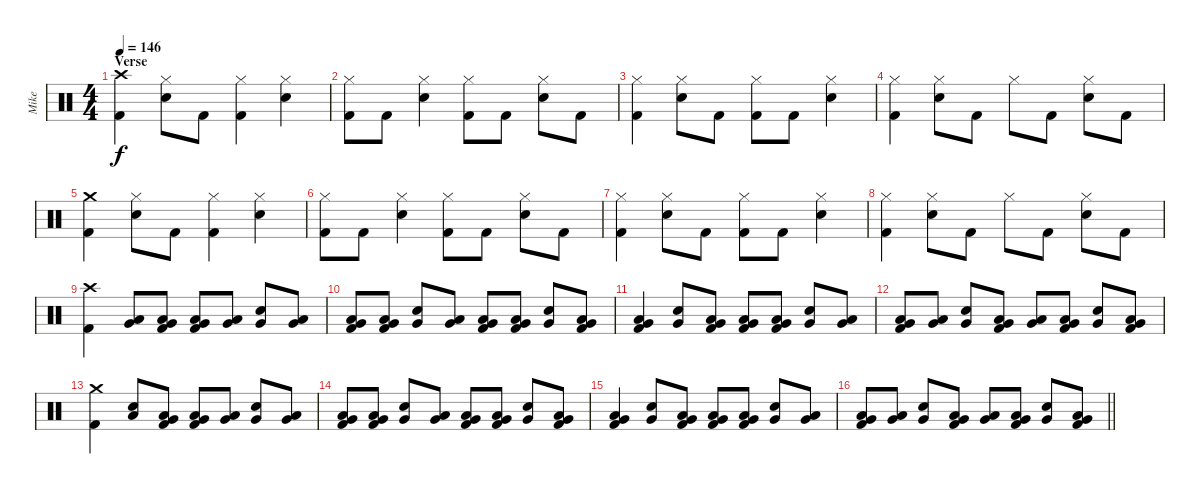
\track ("Mike" "Mike") {instrument percussion}
\staff {score}
\articulation defaults
\ts (4 4)
\section ("" "Verse")
\tempo 146
\clef neutral
\ks c
("Crash high (hit)" "Kick (hit) 2").4{dy f} ("Snare (hit) 2" "Hi-Hat (closed)").8 "Kick (hit) 2".8 ("Hi-Hat (closed)" "Kick (hit) 2").4 ("Snare (hit) 2" "Hi-Hat (closed)").4 |
("Hi-Hat (closed)" "Kick (hit) 2").8 "Kick (hit) 2".8 ("Snare (hit) 2" "Hi-Hat (closed)").4 ("Hi-Hat (closed)" "Kick (hit) 2").8 "Kick (hit) 2".8 ("Snare (hit) 2" "Hi-Hat (closed)").8 "Kick (hit) 2".8 |
("Hi-Hat (closed)" "Kick (hit) 2").4 ("Snare (hit) 2" "Hi-Hat (closed)").8 "Kick (hit) 2".8 ("Hi-Hat (closed)" "Kick (hit) 2").8 "Kick (hit) 2".8 ("Snare (hit) 2" "Hi-Hat (closed)").4 |
("Hi-Hat (closed)" "Kick (hit) 2").4 ("Snare (hit) 2" "Hi-Hat (closed)").8 "Kick (hit) 2".8 "Hi-Hat (closed)".8 "Kick (hit) 2".8 ("Snare (hit) 2" "Hi-Hat (closed)").8 "Kick (hit) 2".8 |
("Crash medium (hit)" "Kick (hit) 2").4 ("Snare (hit) 2" "Hi-Hat (closed)").8 "Kick (hit) 2".8 ("Hi-Hat (closed)" "Kick (hit) 2").4 ("Snare (hit) 2" "Hi-Hat (closed)").4 |
("Hi-Hat (closed)" "Kick (hit) 2").8 "Kick (hit) 2".8 ("Snare (hit) 2" "Hi-Hat (closed)").4 ("Hi-Hat (closed)" "Kick (hit) 2").8 "Kick (hit) 2".8 ("Snare (hit) 2" "Hi-Hat (closed)").8 "Kick (hit) 2".8 |
("Hi-Hat (closed)" "Kick (hit) 2").4 ("Snare (hit) 2" "Hi-Hat (closed)").8 "Kick (hit) 2".8 ("Hi-Hat (closed)" "Kick (hit) 2").8 "Kick (hit) 2".8 ("Snare (hit) 2" "Hi-Hat (closed)").4 |
("Hi-Hat (closed)" "Kick (hit) 2").4 ("Snare (hit) 2" "Hi-Hat (closed)").8 "Kick (hit) 2".8 "Hi-Hat (closed)".8 "Kick (hit) 2".8 ("Snare (hit) 2" "Hi-Hat (closed)").8 "Kick (hit) 2".8 |
("Crash high (hit)" "Kick (hit) 2").4 ("Low Tom (hit)" "Very Low Tom (hit)").8 ("Very Low Tom (hit)" "Low Floor Tom (hit)" "Kick (hit) 2").8 ("Low Tom (hit)" "Very Low Tom (hit)" "Kick (hit) 2").8 ("Very Low Tom (hit)" "Low Floor Tom (hit)").8 ("Snare (hit) 2" "Very Low Tom (hit)").8 ("Very Low Tom (hit)" "Low Floor Tom (hit)").8 |
("Low Tom (hit)" "Very Low Tom (hit)" "Kick (hit) 2").8 ("Very Low Tom (hit)" "Low Floor Tom (hit)" "Kick (hit) 2").8 ("Snare (hit) 2" "Very Low Tom (hit)").8 ("Very Low Tom (hit)" "Low Floor Tom (hit)").8 ("Low Tom (hit)" "Very Low Tom (hit)" "Kick (hit) 2").8 ("Very Low Tom (hit)" "Low Floor Tom (hit)" "Kick (hit) 2").8 ("Snare (hit) 2" "Very Low Tom (hit)").8 ("Low Tom (hit)" "Very Low Tom (hit)" "Kick (hit) 2").8 |
("Very Low Tom (hit)" "Low Floor Tom (hit)" "Kick (hit) 2").4 ("Snare (hit) 2" "Very Low Tom (hit)").8 ("Very Low Tom (hit)" "Low Floor Tom (hit)" "Kick (hit) 2").8 ("Low Tom (hit)" "Very Low Tom (hit)" "Kick (hit) 2").8 ("Very Low Tom (hit)" "Low Floor Tom (hit)" "Kick (hit) 2").8 ("Snare (hit) 2" "Very Low Tom (hit)").8 ("Very Low Tom (hit)" "Low Floor Tom (hit)").8 |
("Low Tom (hit)" "Very Low Tom (hit)" "Kick (hit) 2").8 ("Very Low Tom (hit)" "Low Floor Tom (hit)").8 ("Snare (hit) 2" "Very Low Tom (hit)").8 ("Very Low Tom (hit)" "Low Floor Tom (hit)" "Kick (hit) 2").8 ("Low Tom (hit)" "Very Low Tom (hit)").8 ("Very Low Tom (hit)" "Low Floor Tom (hit)" "Kick (hit) 2").8 ("Snare (hit) 2" "Very Low Tom (hit)").8 ("Very Low Tom (hit)" "Low Floor Tom (hit)" "Kick (hit) 2").8 |
("Crash medium (hit)" "Kick (hit) 2").4 ("Snare (hit) 2" "Low Tom (hit)").8 ("Very Low Tom (hit)" "Low Floor Tom (hit)" "Kick (hit) 2").8 ("Low Tom (hit)" "Very Low Tom (hit)" "Kick (hit) 2").8 ("Very Low Tom (hit)" "Low Floor Tom (hit)").8 ("Snare (hit) 2" "Very Low Tom (hit)").8 ("Very Low Tom (hit)" "Low Floor Tom (hit)").8 |
("Low Tom (hit)" "Very Low Tom (hit)" "Kick (hit) 2").8 ("Very Low Tom (hit)" "Low Floor Tom (hit)" "Kick (hit) 2").8 ("Snare (hit) 2" "Very Low Tom (hit)").8 ("Very Low Tom (hit)" "Low Floor Tom (hit)").8 ("Low Tom (hit)" "Very Low Tom (hit)" "Kick (hit) 2").8 ("Very Low Tom (hit)" "Low Floor Tom (hit)" "Kick (hit) 2").8 ("Snare (hit) 2" "Very Low Tom (hit)").8 ("Low Tom (hit)" "Very Low Tom (hit)" "Kick (hit) 2").8 |
("Very Low Tom (hit)" "Low Floor Tom (hit)" "Kick (hit) 2").4 ("Snare (hit) 2" "Very Low Tom (hit)").8 ("Very Low Tom (hit)" "Low Floor Tom (hit)" "Kick (hit) 2").8 ("Low Tom (hit)" "Very Low Tom (hit)" "Kick (hit) 2").8 ("Very Low Tom (hit)" "Low Floor Tom (hit)" "Kick (hit) 2").8 ("Snare (hit) 2" "Very Low Tom (hit)").8 ("Very Low Tom (hit)" "Low Floor Tom (hit)").8 |
\barLineRight lightlight
("Low Tom (hit)" "Very Low Tom (hit)" "Kick (hit) 2").8 ("Very Low Tom (hit)" "Low Floor Tom (hit)").8 ("Snare (hit) 2" "Very Low Tom (hit)").8 ("Very Low Tom (hit)" "Low Floor Tom (hit)" "Kick (hit) 2").8 ("Low Tom (hit)" "Very Low Tom (hit)").8 ("Very Low Tom (hit)" "Low Floor Tom (hit)" "Kick (hit) 2").8 ("Snare (hit) 2" "Very Low Tom (hit)").8 ("Very Low Tom (hit)" "Low Floor Tom (hit)" "Kick (hit) 2").8
